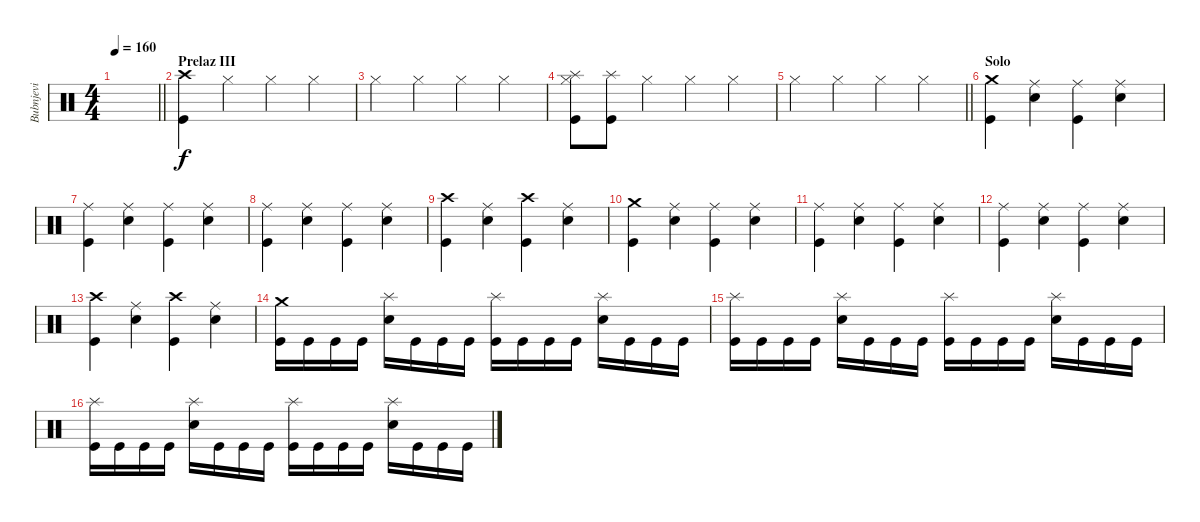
\track ("Bubnjevi" "Bubnjevi") {instrument percussion}
\staff {score}
\articulation defaults
\ts (4 4)
\tempo 160
\clef neutral
\barLineRight lightlight
\ks c
|
\section ("" "Prelaz III")
("Kick (hit)" "Crash high (hit)").4 "Hi-Hat (closed)".4 "Hi-Hat (closed)".4 "Hi-Hat (closed)".4 |
"Hi-Hat (closed)".4 "Hi-Hat (closed)".4 "Hi-Hat (closed)".4 "Hi-Hat (closed)".4 |
("Hi-Hat (closed)" "Kick (hit)" "Splash (hit)").8 ("Kick (hit)" "Splash (hit)").8 "Hi-Hat (closed)".4 "Hi-Hat (closed)".4 "Hi-Hat (closed)".4 |
\barLineRight lightlight "Hi-Hat (closed)".4 "Hi-Hat (closed)".4 "Hi-Hat (closed)".4 "Hi-Hat (closed)".4
|
\section ("" "Solo")
("Kick (hit)" "Crash medium (hit)").4 ("Snare (hit) 2" "Ride (middle)").4 ("Kick (hit)" "Ride (middle)").4 ("Snare (hit) 2" "Ride (middle)").4 |
("Kick (hit)" "Ride (middle)").4 ("Snare (hit) 2" "Ride (middle)").4 ("Kick (hit)" "Ride (middle)").4 ("Snare (hit) 2" "Ride (middle)").4 |
("Kick (hit)" "Ride (middle)").4 ("Snare (hit) 2" "Ride (middle)").4 ("Kick (hit)" "Ride (middle)").4 ("Snare (hit) 2" "Ride (middle)").4 |
("Kick (hit)" "Crash high (hit)").4 ("Snare (hit) 2" "Ride (middle)").4 ("Kick (hit)" "Crash high (hit)").4 ("Snare (hit) 2" "Ride (middle)").4 |
("Kick (hit)" "Crash medium (hit)").4 ("Snare (hit) 2" "Ride (middle)").4 ("Kick (hit)" "Ride (middle)").4 ("Snare (hit) 2" "Ride (middle)").4 |
("Kick (hit)" "Ride (middle)").4 ("Snare (hit) 2" "Ride (middle)").4 ("Kick (hit)" "Ride (middle)").4 ("Snare (hit) 2" "Ride (middle)").4 |
("Kick (hit)" "Ride (middle)").4 ("Snare (hit) 2" "Ride (middle)").4 ("Kick (hit)" "Ride (middle)").4 ("Snare (hit) 2" "Ride (middle)").4 |
("Kick (hit)" "Crash high (hit)").4 ("Snare (hit) 2" "Ride (middle)").4 ("Kick (hit)" "Crash high (hit)").4 ("Snare (hit) 2" "Ride (middle)").4 |
("Kick (hit)" "Crash medium (hit)").16 "Kick (hit)".16 "Kick (hit)".16 "Kick (hit)".16 ("Snare (hit) 2" "Splash (hit)").16 "Kick (hit)".16 "Kick (hit)".16 "Kick (hit)".16 ("Kick (hit)" "Splash (hit)").16 "Kick (hit)".16 "Kick (hit)".16 "Kick (hit)".16 ("Snare (hit) 2" "Splash (hit)").16 "Kick (hit)".16 "Kick (hit)".16 "Kick (hit)".16 |
("Kick (hit)" "Splash (hit)").16 "Kick (hit)".16 "Kick (hit)".16 "Kick (hit)".16 ("Snare (hit) 2" "Splash (hit)").16 "Kick (hit)".16 "Kick (hit)".16 "Kick (hit)".16 ("Kick (hit)" "Splash (hit)").16 "Kick (hit)".16 "Kick (hit)".16 "Kick (hit)".16 ("Snare (hit) 2" "Splash (hit)").16 "Kick (hit)".16 "Kick (hit)".16 "Kick (hit)".16 |
("Kick (hit)" "Splash (hit)").16 "Kick (hit)".16 "Kick (hit)".16 "Kick (hit)".16 ("Snare (hit) 2" "Splash (hit)").16 "Kick (hit)".16 "Kick (hit)".16 "Kick (hit)".16 ("Kick (hit)" "Splash (hit)").16 "Kick (hit)".16 "Kick (hit)".16 "Kick (hit)".16 ("Snare (hit) 2" "Splash (hit)").16 "Kick (hit)".16 "Kick (hit)".16 "Kick (hit)".16
